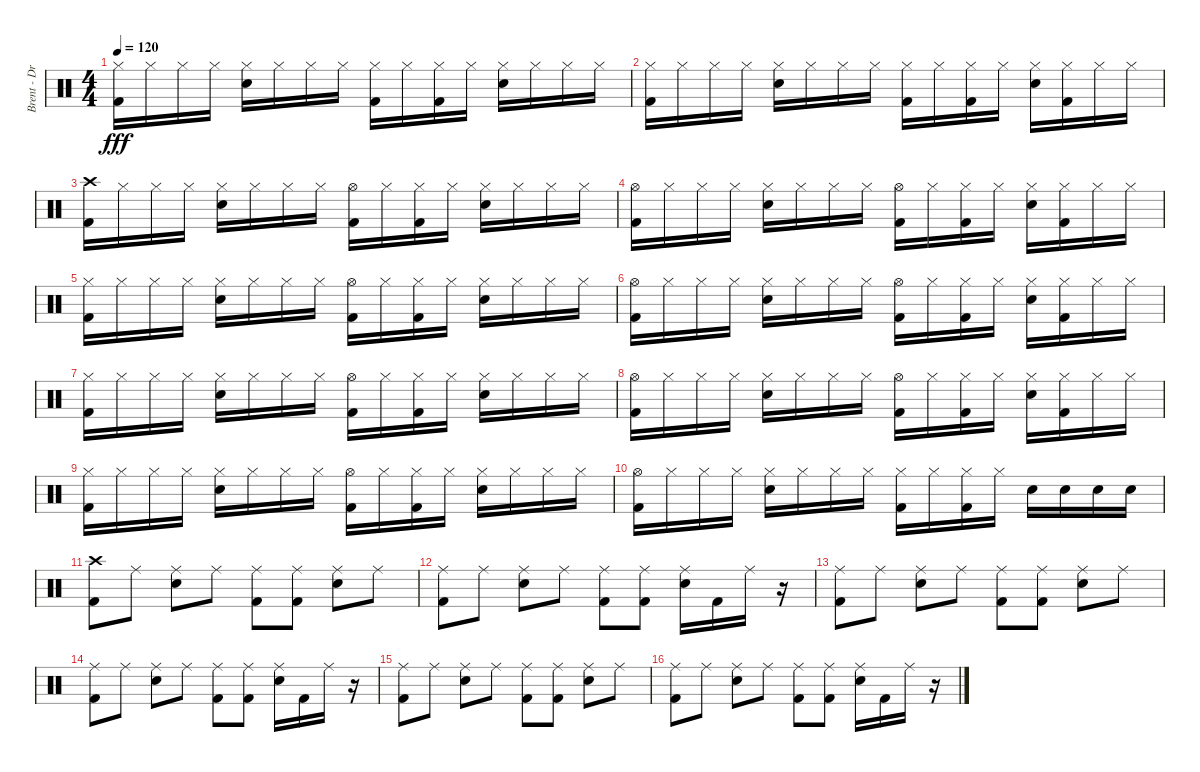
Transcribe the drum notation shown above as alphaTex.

\track ("Brent - Drums" "Brent - Dr") {instrument percussion}
\staff {score}
\articulation defaults
\ts (4 4)
\tempo 120
\clef neutral
\ks c
("Hi-Hat (closed)" "Kick (hit) 2").16{dy fff} "Hi-Hat (closed)".16 "Hi-Hat (closed)".16 "Hi-Hat (closed)".16 ("Hi-Hat (closed)" "Snare (hit) 2").16 "Hi-Hat (closed)".16 "Hi-Hat (closed)".16 "Hi-Hat (closed)".16 ("Hi-Hat (closed)" "Kick (hit) 2").16 "Hi-Hat (closed)".16 ("Hi-Hat (closed)" "Kick (hit) 2").16 "Hi-Hat (closed)".16 ("Hi-Hat (closed)" "Snare (hit) 2").16 "Hi-Hat (closed)".16 "Hi-Hat (closed)".16 "Hi-Hat (closed)".16 |
("Hi-Hat (closed)" "Kick (hit) 2").16 "Hi-Hat (closed)".16 "Hi-Hat (closed)".16 "Hi-Hat (closed)".16 ("Hi-Hat (closed)" "Snare (hit) 2").16 "Hi-Hat (closed)".16 "Hi-Hat (closed)".16 "Hi-Hat (closed)".16 ("Hi-Hat (closed)" "Kick (hit) 2").16 "Hi-Hat (closed)".16 ("Hi-Hat (closed)" "Kick (hit) 2").16 "Hi-Hat (closed)".16 ("Hi-Hat (closed)" "Snare (hit) 2").16 ("Hi-Hat (closed)" "Kick (hit) 2").16 "Hi-Hat (closed)".16 "Hi-Hat (closed)".16 |
("Crash high (hit)" "Kick (hit) 2").16 "Hi-Hat (closed)".16 "Hi-Hat (closed)".16 "Hi-Hat (closed)".16 ("Hi-Hat (closed)" "Snare (hit) 2").16 "Hi-Hat (closed)".16 "Hi-Hat (closed)".16 "Hi-Hat (closed)".16 ("Hi-Hat (open)" "Kick (hit) 2").16 "Hi-Hat (closed)".16 ("Hi-Hat (closed)" "Kick (hit) 2").16 "Hi-Hat (closed)".16 ("Hi-Hat (closed)" "Snare (hit) 2").16 "Hi-Hat (closed)".16 "Hi-Hat (closed)".16 "Hi-Hat (closed)".16 |
("Hi-Hat (open)" "Kick (hit) 2").16 "Hi-Hat (closed)".16 "Hi-Hat (closed)".16 "Hi-Hat (closed)".16 ("Hi-Hat (closed)" "Snare (hit) 2").16 "Hi-Hat (closed)".16 "Hi-Hat (closed)".16 "Hi-Hat (closed)".16 ("Hi-Hat (open)" "Kick (hit) 2").16 "Hi-Hat (closed)".16 ("Hi-Hat (closed)" "Kick (hit) 2").16 "Hi-Hat (closed)".16 ("Hi-Hat (closed)" "Snare (hit) 2").16 ("Hi-Hat (closed)" "Kick (hit) 2").16 "Hi-Hat (closed)".16 "Hi-Hat (closed)".16 |
("Hi-Hat (closed)" "Kick (hit) 2").16 "Hi-Hat (closed)".16 "Hi-Hat (closed)".16 "Hi-Hat (closed)".16 ("Hi-Hat (closed)" "Snare (hit) 2").16 "Hi-Hat (closed)".16 "Hi-Hat (closed)".16 "Hi-Hat (closed)".16 ("Hi-Hat (open)" "Kick (hit) 2").16 "Hi-Hat (closed)".16 ("Hi-Hat (closed)" "Kick (hit) 2").16 "Hi-Hat (closed)".16 ("Hi-Hat (closed)" "Snare (hit) 2").16 "Hi-Hat (closed)".16 "Hi-Hat (closed)".16 "Hi-Hat (closed)".16 |
("Hi-Hat (open)" "Kick (hit) 2").16 "Hi-Hat (closed)".16 "Hi-Hat (closed)".16 "Hi-Hat (closed)".16 ("Hi-Hat (closed)" "Snare (hit) 2").16 "Hi-Hat (closed)".16 "Hi-Hat (closed)".16 "Hi-Hat (closed)".16 ("Hi-Hat (open)" "Kick (hit) 2").16 "Hi-Hat (closed)".16 ("Hi-Hat (closed)" "Kick (hit) 2").16 "Hi-Hat (closed)".16 ("Hi-Hat (closed)" "Snare (hit) 2").16 ("Hi-Hat (closed)" "Kick (hit) 2").16 "Hi-Hat (closed)".16 "Hi-Hat (closed)".16 |
("Hi-Hat (closed)" "Kick (hit) 2").16 "Hi-Hat (closed)".16 "Hi-Hat (closed)".16 "Hi-Hat (closed)".16 ("Hi-Hat (closed)" "Snare (hit) 2").16 "Hi-Hat (closed)".16 "Hi-Hat (closed)".16 "Hi-Hat (closed)".16 ("Hi-Hat (open)" "Kick (hit) 2").16 "Hi-Hat (closed)".16 ("Hi-Hat (closed)" "Kick (hit) 2").16 "Hi-Hat (closed)".16 ("Hi-Hat (closed)" "Snare (hit) 2").16 "Hi-Hat (closed)".16 "Hi-Hat (closed)".16 "Hi-Hat (closed)".16 |
("Hi-Hat (open)" "Kick (hit) 2").16 "Hi-Hat (closed)".16 "Hi-Hat (closed)".16 "Hi-Hat (closed)".16 ("Hi-Hat (closed)" "Snare (hit) 2").16 "Hi-Hat (closed)".16 "Hi-Hat (closed)".16 "Hi-Hat (closed)".16 ("Hi-Hat (open)" "Kick (hit) 2").16 "Hi-Hat (closed)".16 ("Hi-Hat (closed)" "Kick (hit) 2").16 "Hi-Hat (closed)".16 ("Hi-Hat (closed)" "Snare (hit) 2").16 ("Hi-Hat (closed)" "Kick (hit) 2").16 "Hi-Hat (closed)".16 "Hi-Hat (closed)".16 |
("Hi-Hat (closed)" "Kick (hit) 2").16 "Hi-Hat (closed)".16 "Hi-Hat (closed)".16 "Hi-Hat (closed)".16 ("Hi-Hat (closed)" "Snare (hit) 2").16 "Hi-Hat (closed)".16 "Hi-Hat (closed)".16 "Hi-Hat (closed)".16 ("Hi-Hat (open)" "Kick (hit) 2").16 "Hi-Hat (closed)".16 ("Hi-Hat (closed)" "Kick (hit) 2").16 "Hi-Hat (closed)".16 ("Hi-Hat (closed)" "Snare (hit) 2").16 "Hi-Hat (closed)".16 "Hi-Hat (closed)".16 "Hi-Hat (closed)".16 |
("Hi-Hat (open)" "Kick (hit) 2").16 "Hi-Hat (closed)".16 "Hi-Hat (closed)".16 "Hi-Hat (closed)".16 ("Hi-Hat (closed)" "Snare (hit) 2").16 "Hi-Hat (closed)".16 "Hi-Hat (closed)".16 "Hi-Hat (closed)".16 ("Hi-Hat (closed)" "Kick (hit) 2").16 "Hi-Hat (closed)".16 ("Hi-Hat (closed)" "Kick (hit) 2").16 "Hi-Hat (closed)".16 "Snare (hit) 2".16 "Snare (hit) 2".16 "Snare (hit) 2".16 "Snare (hit) 2".16 |
("Crash high (hit)" "Kick (hit) 2").8 "Ride (middle)".8 ("Ride (middle)" "Snare (hit) 2").8 "Ride (middle)".8 ("Ride (middle)" "Kick (hit) 2").8 ("Ride (middle)" "Kick (hit) 2").8 ("Ride (middle)" "Snare (hit) 2").8 "Ride (middle)".8 |
("Ride (middle)" "Kick (hit) 2").8 "Ride (middle)".8 ("Ride (middle)" "Snare (hit) 2").8 "Ride (middle)".8 ("Ride (middle)" "Kick (hit) 2").8 ("Ride (middle)" "Kick (hit) 2").8 ("Ride (middle)" "Snare (hit) 2").16 "Kick (hit) 2".16 "Ride (middle)".16 r.16 |
("Ride (middle)" "Kick (hit) 2").8 "Ride (middle)".8 ("Ride (middle)" "Snare (hit) 2").8 "Ride (middle)".8 ("Ride (middle)" "Kick (hit) 2").8 ("Ride (middle)" "Kick (hit) 2").8 ("Ride (middle)" "Snare (hit) 2").8 "Ride (middle)".8 |
("Ride (middle)" "Kick (hit) 2").8 "Ride (middle)".8 ("Ride (middle)" "Snare (hit) 2").8 "Ride (middle)".8 ("Ride (middle)" "Kick (hit) 2").8 ("Ride (middle)" "Kick (hit) 2").8 ("Ride (middle)" "Snare (hit) 2").16 "Kick (hit) 2".16 "Ride (middle)".16 r.16 |
("Ride (middle)" "Kick (hit) 2").8 "Ride (middle)".8 ("Ride (middle)" "Snare (hit) 2").8 "Ride (middle)".8 ("Ride (middle)" "Kick (hit) 2").8 ("Ride (middle)" "Kick (hit) 2").8 ("Ride (middle)" "Snare (hit) 2").8 "Ride (middle)".8 |
("Ride (middle)" "Kick (hit) 2").8 "Ride (middle)".8 ("Ride (middle)" "Snare (hit) 2").8 "Ride (middle)".8 ("Ride (middle)" "Kick (hit) 2").8 ("Ride (middle)" "Kick (hit) 2").8 ("Ride (middle)" "Snare (hit) 2").16 "Kick (hit) 2".16 "Ride (middle)".16 r.16
